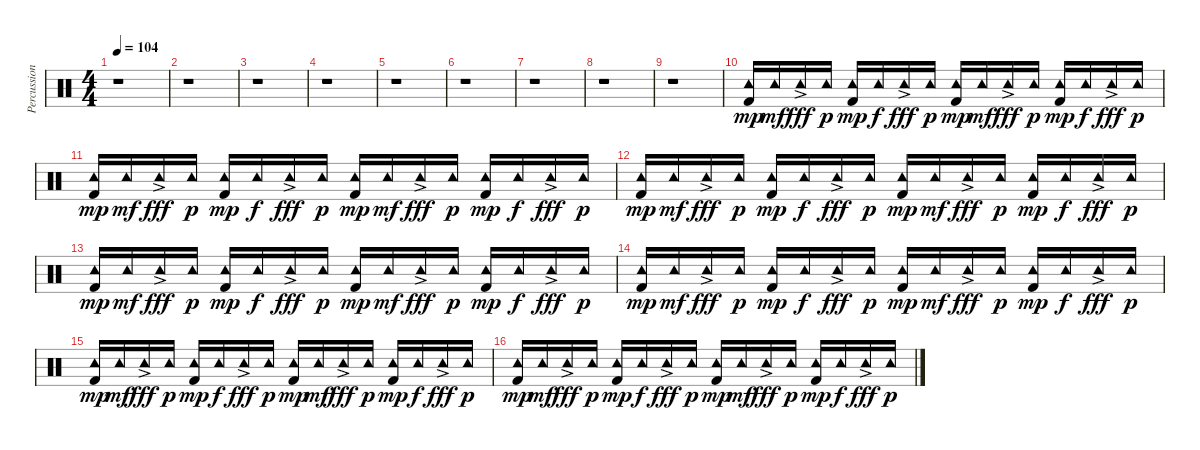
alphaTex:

\track ("Percussion" "Percussion") {instrument percussion}
\staff {score}
\articulation defaults
\ts (4 4)
\tempo 104
\clef neutral
\ks c
r.1{dy mp} |
r.1 |
r.1 |
r.1 |
r.1 |
r.1 |
r.1 |
r.1 |
r.1 |
("Kick (hit) 2" "Tambourine (hit)").16 "Tambourine (hit)".16{dy mf} "Tambourine (hit)"{ac}.16{dy fff} "Tambourine (hit)".16{dy p} ("Kick (hit) 2" "Tambourine (hit)").16{dy mp} "Tambourine (hit)".16{dy f} "Tambourine (hit)"{ac}.16{dy fff} "Tambourine (hit)".16{dy p} ("Kick (hit) 2" "Tambourine (hit)").16{dy mp} "Tambourine (hit)".16{dy mf} "Tambourine (hit)"{ac}.16{dy fff} "Tambourine (hit)".16{dy p} ("Kick (hit) 2" "Tambourine (hit)").16{dy mp} "Tambourine (hit)".16{dy f} "Tambourine (hit)"{ac}.16{dy fff} "Tambourine (hit)".16{dy p} |
("Kick (hit) 2" "Tambourine (hit)").16{dy mp} "Tambourine (hit)".16{dy mf} "Tambourine (hit)"{ac}.16{dy fff} "Tambourine (hit)".16{dy p} ("Kick (hit) 2" "Tambourine (hit)").16{dy mp} "Tambourine (hit)".16{dy f} "Tambourine (hit)"{ac}.16{dy fff} "Tambourine (hit)".16{dy p} ("Kick (hit) 2" "Tambourine (hit)").16{dy mp} "Tambourine (hit)".16{dy mf} "Tambourine (hit)"{ac}.16{dy fff} "Tambourine (hit)".16{dy p} ("Kick (hit) 2" "Tambourine (hit)").16{dy mp} "Tambourine (hit)".16{dy f} "Tambourine (hit)"{ac}.16{dy fff} "Tambourine (hit)".16{dy p} |
("Kick (hit) 2" "Tambourine (hit)").16{dy mp} "Tambourine (hit)".16{dy mf} "Tambourine (hit)"{ac}.16{dy fff} "Tambourine (hit)".16{dy p} ("Kick (hit) 2" "Tambourine (hit)").16{dy mp} "Tambourine (hit)".16{dy f} "Tambourine (hit)"{ac}.16{dy fff} "Tambourine (hit)".16{dy p} ("Kick (hit) 2" "Tambourine (hit)").16{dy mp} "Tambourine (hit)".16{dy mf} "Tambourine (hit)"{ac}.16{dy fff} "Tambourine (hit)".16{dy p} ("Kick (hit) 2" "Tambourine (hit)").16{dy mp} "Tambourine (hit)".16{dy f} "Tambourine (hit)"{ac}.16{dy fff} "Tambourine (hit)".16{dy p} |
("Kick (hit) 2" "Tambourine (hit)").16{dy mp} "Tambourine (hit)".16{dy mf} "Tambourine (hit)"{ac}.16{dy fff} "Tambourine (hit)".16{dy p} ("Kick (hit) 2" "Tambourine (hit)").16{dy mp} "Tambourine (hit)".16{dy f} "Tambourine (hit)"{ac}.16{dy fff} "Tambourine (hit)".16{dy p} ("Kick (hit) 2" "Tambourine (hit)").16{dy mp} "Tambourine (hit)".16{dy mf} "Tambourine (hit)"{ac}.16{dy fff} "Tambourine (hit)".16{dy p} ("Kick (hit) 2" "Tambourine (hit)").16{dy mp} "Tambourine (hit)".16{dy f} "Tambourine (hit)"{ac}.16{dy fff} "Tambourine (hit)".16{dy p} |
("Kick (hit) 2" "Tambourine (hit)").16{dy mp} "Tambourine (hit)".16{dy mf} "Tambourine (hit)"{ac}.16{dy fff} "Tambourine (hit)".16{dy p} ("Kick (hit) 2" "Tambourine (hit)").16{dy mp} "Tambourine (hit)".16{dy f} "Tambourine (hit)"{ac}.16{dy fff} "Tambourine (hit)".16{dy p} ("Kick (hit) 2" "Tambourine (hit)").16{dy mp} "Tambourine (hit)".16{dy mf} "Tambourine (hit)"{ac}.16{dy fff} "Tambourine (hit)".16{dy p} ("Kick (hit) 2" "Tambourine (hit)").16{dy mp} "Tambourine (hit)".16{dy f} "Tambourine (hit)"{ac}.16{dy fff} "Tambourine (hit)".16{dy p} |
("Kick (hit) 2" "Tambourine (hit)").16{dy mp} "Tambourine (hit)".16{dy mf} "Tambourine (hit)"{ac}.16{dy fff} "Tambourine (hit)".16{dy p} ("Kick (hit) 2" "Tambourine (hit)").16{dy mp} "Tambourine (hit)".16{dy f} "Tambourine (hit)"{ac}.16{dy fff} "Tambourine (hit)".16{dy p} ("Kick (hit) 2" "Tambourine (hit)").16{dy mp} "Tambourine (hit)".16{dy mf} "Tambourine (hit)"{ac}.16{dy fff} "Tambourine (hit)".16{dy p} ("Kick (hit) 2" "Tambourine (hit)").16{dy mp} "Tambourine (hit)".16{dy f} "Tambourine (hit)"{ac}.16{dy fff} "Tambourine (hit)".16{dy p} |
("Kick (hit) 2" "Tambourine (hit)").16{dy mp} "Tambourine (hit)".16{dy mf} "Tambourine (hit)"{ac}.16{dy fff} "Tambourine (hit)".16{dy p} ("Kick (hit) 2" "Tambourine (hit)").16{dy mp} "Tambourine (hit)".16{dy f} "Tambourine (hit)"{ac}.16{dy fff} "Tambourine (hit)".16{dy p} ("Kick (hit) 2" "Tambourine (hit)").16{dy mp} "Tambourine (hit)".16{dy mf} "Tambourine (hit)"{ac}.16{dy fff} "Tambourine (hit)".16{dy p} ("Kick (hit) 2" "Tambourine (hit)").16{dy mp} "Tambourine (hit)".16{dy f} "Tambourine (hit)"{ac}.16{dy fff} "Tambourine (hit)".16{dy p}
